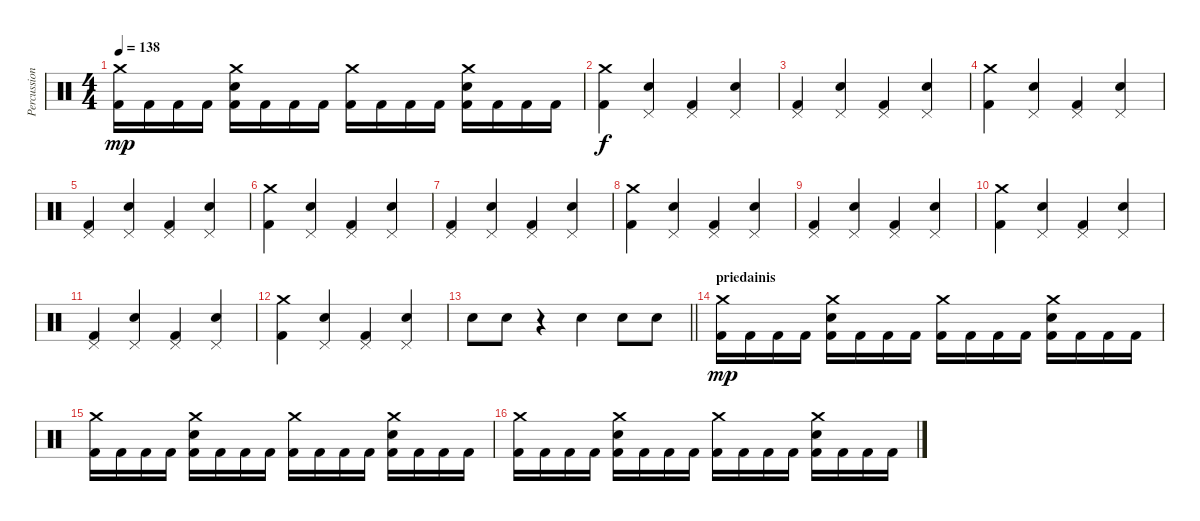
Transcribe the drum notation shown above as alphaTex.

\track ("Percussion" "Percussion") {instrument percussion}
\staff {score}
\articulation defaults
\ts (4 4)
\tempo 138
\clef neutral
\ks c
("Crash medium (hit)" "Kick (hit) 2").16{dy mp} "Kick (hit) 2".16 "Kick (hit) 2".16 "Kick (hit) 2".16 ("Crash medium (hit)" "Snare (hit) 2" "Kick (hit) 2").16 "Kick (hit) 2".16 "Kick (hit) 2".16 "Kick (hit) 2".16 ("Crash medium (hit)" "Kick (hit) 2").16 "Kick (hit) 2".16 "Kick (hit) 2".16 "Kick (hit) 2".16 ("Crash medium (hit)" "Snare (hit) 2" "Kick (hit) 2").16 "Kick (hit) 2".16 "Kick (hit) 2".16 "Kick (hit) 2".16 |
("Crash medium (hit)" "Kick (hit) 2").4{dy f} ("Pedal Hi-Hat (hit)" "Snare (hit) 2").4 ("Pedal Hi-Hat (hit)" "Kick (hit) 2").4 ("Pedal Hi-Hat (hit)" "Snare (hit) 2").4 |
("Pedal Hi-Hat (hit)" "Kick (hit) 2").4 ("Pedal Hi-Hat (hit)" "Snare (hit) 2").4 ("Pedal Hi-Hat (hit)" "Kick (hit) 2").4 ("Pedal Hi-Hat (hit)" "Snare (hit) 2").4 |
("Crash medium (hit)" "Kick (hit) 2").4 ("Pedal Hi-Hat (hit)" "Snare (hit) 2").4 ("Pedal Hi-Hat (hit)" "Kick (hit) 2").4 ("Pedal Hi-Hat (hit)" "Snare (hit) 2").4 |
("Pedal Hi-Hat (hit)" "Kick (hit) 2").4 ("Pedal Hi-Hat (hit)" "Snare (hit) 2").4 ("Pedal Hi-Hat (hit)" "Kick (hit) 2").4 ("Pedal Hi-Hat (hit)" "Snare (hit) 2").4 |
("Crash medium (hit)" "Kick (hit) 2").4 ("Pedal Hi-Hat (hit)" "Snare (hit) 2").4 ("Pedal Hi-Hat (hit)" "Kick (hit) 2").4 ("Pedal Hi-Hat (hit)" "Snare (hit) 2").4 |
("Pedal Hi-Hat (hit)" "Kick (hit) 2").4 ("Pedal Hi-Hat (hit)" "Snare (hit) 2").4 ("Pedal Hi-Hat (hit)" "Kick (hit) 2").4 ("Pedal Hi-Hat (hit)" "Snare (hit) 2").4 |
("Crash medium (hit)" "Kick (hit) 2").4 ("Pedal Hi-Hat (hit)" "Snare (hit) 2").4 ("Pedal Hi-Hat (hit)" "Kick (hit) 2").4 ("Pedal Hi-Hat (hit)" "Snare (hit) 2").4 |
("Pedal Hi-Hat (hit)" "Kick (hit) 2").4 ("Pedal Hi-Hat (hit)" "Snare (hit) 2").4 ("Pedal Hi-Hat (hit)" "Kick (hit) 2").4 ("Pedal Hi-Hat (hit)" "Snare (hit) 2").4 |
("Crash medium (hit)" "Kick (hit) 2").4 ("Pedal Hi-Hat (hit)" "Snare (hit) 2").4 ("Pedal Hi-Hat (hit)" "Kick (hit) 2").4 ("Pedal Hi-Hat (hit)" "Snare (hit) 2").4 |
("Pedal Hi-Hat (hit)" "Kick (hit) 2").4 ("Pedal Hi-Hat (hit)" "Snare (hit) 2").4 ("Pedal Hi-Hat (hit)" "Kick (hit) 2").4 ("Pedal Hi-Hat (hit)" "Snare (hit) 2").4 |
("Crash medium (hit)" "Kick (hit) 2").4 ("Pedal Hi-Hat (hit)" "Snare (hit) 2").4 ("Pedal Hi-Hat (hit)" "Kick (hit) 2").4 ("Pedal Hi-Hat (hit)" "Snare (hit) 2").4 |
\barLineRight lightlight "Snare (hit) 2".8 "Snare (hit) 2".8
r.4 "Snare (hit) 2".4 "Snare (hit) 2".8 "Snare (hit) 2".8 |
\section ("" "priedainis")
("Crash medium (hit)" "Kick (hit) 2").16{dy mp} "Kick (hit) 2".16 "Kick (hit) 2".16 "Kick (hit) 2".16 ("Crash medium (hit)" "Snare (hit) 2" "Kick (hit) 2").16 "Kick (hit) 2".16 "Kick (hit) 2".16 "Kick (hit) 2".16 ("Crash medium (hit)" "Kick (hit) 2").16 "Kick (hit) 2".16 "Kick (hit) 2".16 "Kick (hit) 2".16 ("Crash medium (hit)" "Snare (hit) 2" "Kick (hit) 2").16 "Kick (hit) 2".16 "Kick (hit) 2".16 "Kick (hit) 2".16 |
("Crash medium (hit)" "Kick (hit) 2").16 "Kick (hit) 2".16 "Kick (hit) 2".16 "Kick (hit) 2".16 ("Crash medium (hit)" "Snare (hit) 2" "Kick (hit) 2").16 "Kick (hit) 2".16 "Kick (hit) 2".16 "Kick (hit) 2".16 ("Crash medium (hit)" "Kick (hit) 2").16 "Kick (hit) 2".16 "Kick (hit) 2".16 "Kick (hit) 2".16 ("Crash medium (hit)" "Snare (hit) 2" "Kick (hit) 2").16 "Kick (hit) 2".16 "Kick (hit) 2".16 "Kick (hit) 2".16 |
("Crash medium (hit)" "Kick (hit) 2").16 "Kick (hit) 2".16 "Kick (hit) 2".16 "Kick (hit) 2".16 ("Crash medium (hit)" "Snare (hit) 2" "Kick (hit) 2").16 "Kick (hit) 2".16 "Kick (hit) 2".16 "Kick (hit) 2".16 ("Crash medium (hit)" "Kick (hit) 2").16 "Kick (hit) 2".16 "Kick (hit) 2".16 "Kick (hit) 2".16 ("Crash medium (hit)" "Snare (hit) 2" "Kick (hit) 2").16 "Kick (hit) 2".16 "Kick (hit) 2".16 "Kick (hit) 2".16
